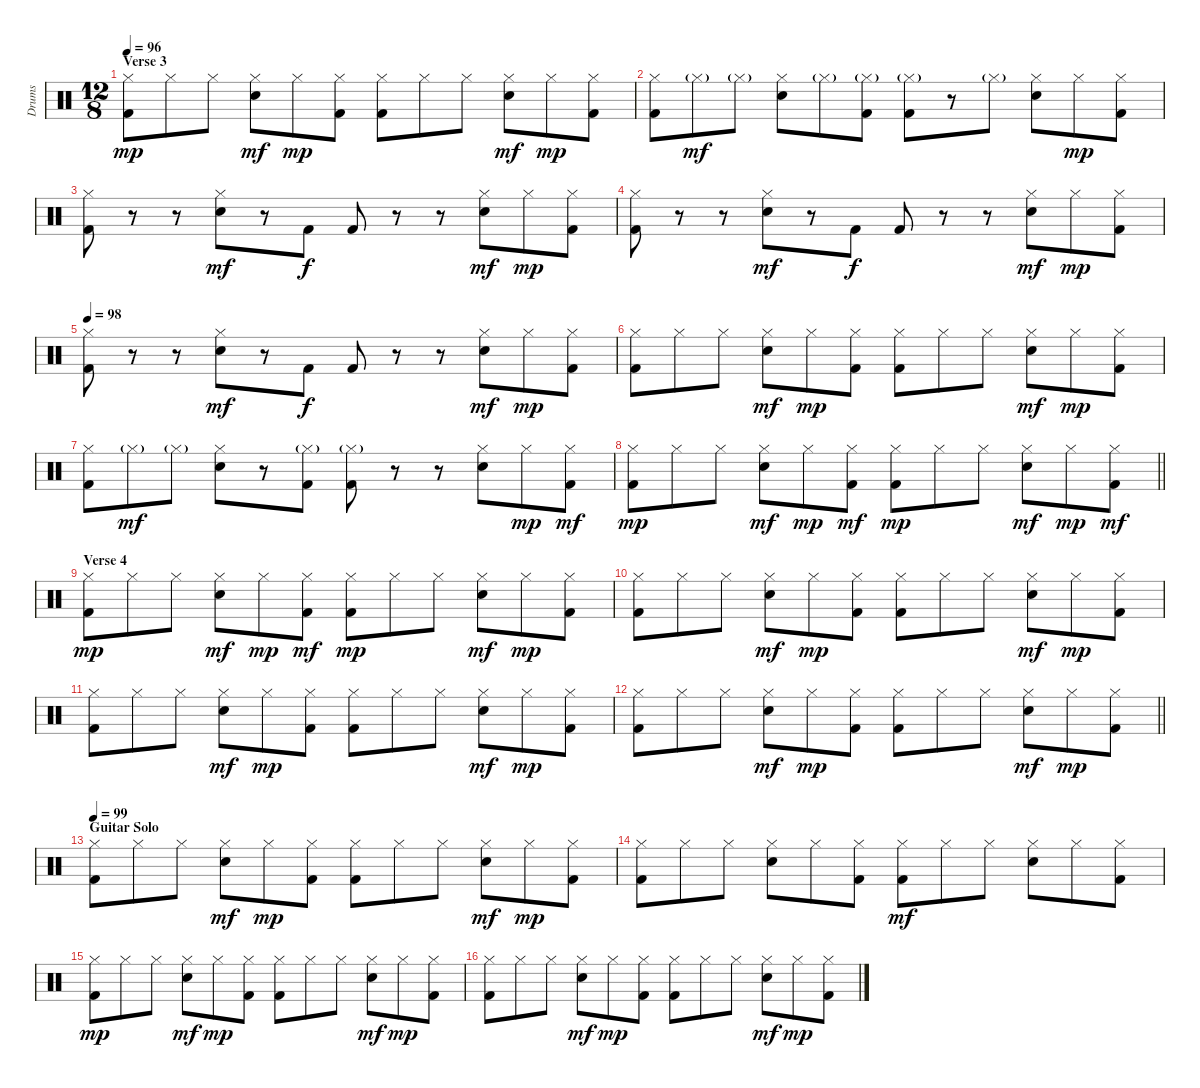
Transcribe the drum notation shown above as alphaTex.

\track ("Drums" "Drums") {instrument percussion}
\staff {score}
\articulation defaults
\ts (12 8)
\section ("" "Verse 3")
\tempo 96
\clef neutral
\ks c
("Hi-Hat (closed)" "Kick (hit) 2").8{dy mp} "Hi-Hat (closed)".8 "Hi-Hat (closed)".8 ("Hi-Hat (closed)" "Snare (hit) 2").8{dy mf} "Hi-Hat (closed)".8{dy mp} ("Hi-Hat (closed)" "Kick (hit) 2").8 ("Hi-Hat (closed)" "Kick (hit) 2").8 "Hi-Hat (closed)".8 "Hi-Hat (closed)".8 ("Hi-Hat (closed)" "Snare (hit) 2").8{dy mf} "Hi-Hat (closed)".8{dy mp} ("Hi-Hat (closed)" "Kick (hit) 2").8 |
("Hi-Hat (closed)" "Kick (hit) 2").8 "Hi-Hat (closed)"{g}.8{dy mf} "Hi-Hat (closed)"{g}.8 ("Hi-Hat (closed)" "Snare (hit) 2").8 "Hi-Hat (closed)"{g}.8 ("Hi-Hat (closed)"{g} "Kick (hit) 2").8 ("Hi-Hat (closed)"{g} "Kick (hit) 2").8 r.8 "Hi-Hat (closed)"{g}.8 ("Hi-Hat (closed)" "Snare (hit) 2").8 "Hi-Hat (closed)".8{dy mp} ("Hi-Hat (closed)" "Kick (hit) 2").8 |
("Hi-Hat (closed)" "Kick (hit) 2").8 r.8 r.8 ("Hi-Hat (closed)" "Snare (hit) 2").8{dy mf} r.8 "Kick (hit) 2".8{dy f} "Kick (hit) 2".8 r.8 r.8 ("Hi-Hat (closed)" "Snare (hit) 2").8{dy mf} "Hi-Hat (closed)".8{dy mp} ("Hi-Hat (closed)" "Kick (hit) 2").8 |
("Hi-Hat (closed)" "Kick (hit) 2").8 r.8 r.8 ("Hi-Hat (closed)" "Snare (hit) 2").8{dy mf} r.8 "Kick (hit) 2".8{dy f} "Kick (hit) 2".8 r.8 r.8 ("Hi-Hat (closed)" "Snare (hit) 2").8{dy mf} "Hi-Hat (closed)".8{dy mp} ("Hi-Hat (closed)" "Kick (hit) 2").8 |
\tempo 98
("Hi-Hat (closed)" "Kick (hit) 2").8 r.8 r.8 ("Hi-Hat (closed)" "Snare (hit) 2").8{dy mf} r.8 "Kick (hit) 2".8{dy f} "Kick (hit) 2".8 r.8 r.8 ("Hi-Hat (closed)" "Snare (hit) 2").8{dy mf} "Hi-Hat (closed)".8{dy mp} ("Hi-Hat (closed)" "Kick (hit) 2").8 |
("Hi-Hat (closed)" "Kick (hit) 2").8 "Hi-Hat (closed)".8 "Hi-Hat (closed)".8 ("Hi-Hat (closed)" "Snare (hit) 2").8{dy mf} "Hi-Hat (closed)".8{dy mp} ("Hi-Hat (closed)" "Kick (hit) 2").8 ("Hi-Hat (closed)" "Kick (hit) 2").8 "Hi-Hat (closed)".8 "Hi-Hat (closed)".8 ("Hi-Hat (closed)" "Snare (hit) 2").8{dy mf} "Hi-Hat (closed)".8{dy mp} ("Hi-Hat (closed)" "Kick (hit) 2").8 |
("Hi-Hat (closed)" "Kick (hit) 2").8 "Hi-Hat (closed)"{g}.8{dy mf} "Hi-Hat (closed)"{g}.8 ("Hi-Hat (closed)" "Snare (hit) 2").8 r.8 ("Hi-Hat (closed)"{g} "Kick (hit) 2").8 ("Hi-Hat (closed)"{g} "Kick (hit) 2").8 r.8 r.8 ("Hi-Hat (closed)" "Snare (hit) 2").8 "Hi-Hat (closed)".8{dy mp} ("Hi-Hat (closed)" "Kick (hit) 2").8{dy mf} |
\barLineRight lightlight
("Hi-Hat (closed)" "Kick (hit) 2").8{dy mp} "Hi-Hat (closed)".8 "Hi-Hat (closed)".8 ("Hi-Hat (closed)" "Snare (hit) 2").8{dy mf} "Hi-Hat (closed)".8{dy mp} ("Hi-Hat (closed)" "Kick (hit) 2").8{dy mf} ("Hi-Hat (closed)" "Kick (hit) 2").8{dy mp} "Hi-Hat (closed)".8 "Hi-Hat (closed)".8 ("Hi-Hat (closed)" "Snare (hit) 2").8{dy mf} "Hi-Hat (closed)".8{dy mp} ("Hi-Hat (closed)" "Kick (hit) 2").8{dy mf} |
\section ("" "Verse 4")
("Hi-Hat (closed)" "Kick (hit) 2").8{dy mp} "Hi-Hat (closed)".8 "Hi-Hat (closed)".8 ("Hi-Hat (closed)" "Snare (hit) 2").8{dy mf} "Hi-Hat (closed)".8{dy mp} ("Hi-Hat (closed)" "Kick (hit) 2").8{dy mf} ("Hi-Hat (closed)" "Kick (hit) 2").8{dy mp} "Hi-Hat (closed)".8 "Hi-Hat (closed)".8 ("Hi-Hat (closed)" "Snare (hit) 2").8{dy mf} "Hi-Hat (closed)".8{dy mp} ("Hi-Hat (closed)" "Kick (hit) 2").8 |
("Hi-Hat (closed)" "Kick (hit) 2").8 "Hi-Hat (closed)".8 "Hi-Hat (closed)".8 ("Hi-Hat (closed)" "Snare (hit) 2").8{dy mf} "Hi-Hat (closed)".8{dy mp} ("Hi-Hat (closed)" "Kick (hit) 2").8 ("Hi-Hat (closed)" "Kick (hit) 2").8 "Hi-Hat (closed)".8 "Hi-Hat (closed)".8 ("Hi-Hat (closed)" "Snare (hit) 2").8{dy mf} "Hi-Hat (closed)".8{dy mp} ("Hi-Hat (closed)" "Kick (hit) 2").8 |
("Hi-Hat (closed)" "Kick (hit) 2").8 "Hi-Hat (closed)".8 "Hi-Hat (closed)".8 ("Hi-Hat (closed)" "Snare (hit) 2").8{dy mf} "Hi-Hat (closed)".8{dy mp} ("Hi-Hat (closed)" "Kick (hit) 2").8 ("Hi-Hat (closed)" "Kick (hit) 2").8 "Hi-Hat (closed)".8 "Hi-Hat (closed)".8 ("Hi-Hat (closed)" "Snare (hit) 2").8{dy mf} "Hi-Hat (closed)".8{dy mp} ("Hi-Hat (closed)" "Kick (hit) 2").8 |
\barLineRight lightlight
("Hi-Hat (closed)" "Kick (hit) 2").8 "Hi-Hat (closed)".8 "Hi-Hat (closed)".8 ("Hi-Hat (closed)" "Snare (hit) 2").8{dy mf} "Hi-Hat (closed)".8{dy mp} ("Hi-Hat (closed)" "Kick (hit) 2").8 ("Hi-Hat (closed)" "Kick (hit) 2").8 "Hi-Hat (closed)".8 "Hi-Hat (closed)".8 ("Hi-Hat (closed)" "Snare (hit) 2").8{dy mf} "Hi-Hat (closed)".8{dy mp} ("Hi-Hat (closed)" "Kick (hit) 2").8 |
\section ("" "Guitar Solo")
\tempo 99
("Hi-Hat (closed)" "Kick (hit) 2").8 "Hi-Hat (closed)".8 "Hi-Hat (closed)".8 ("Hi-Hat (closed)" "Snare (hit) 2").8{dy mf} "Hi-Hat (closed)".8{dy mp} ("Hi-Hat (closed)" "Kick (hit) 2").8 ("Hi-Hat (closed)" "Kick (hit) 2").8 "Hi-Hat (closed)".8 "Hi-Hat (closed)".8 ("Hi-Hat (closed)" "Snare (hit) 2").8{dy mf} "Hi-Hat (closed)".8{dy mp} ("Hi-Hat (closed)" "Kick (hit) 2").8 |
("Hi-Hat (closed)" "Kick (hit) 2").8 "Hi-Hat (closed)".8 "Hi-Hat (closed)".8 ("Hi-Hat (closed)" "Snare (hit) 2").8 "Hi-Hat (closed)".8 ("Hi-Hat (closed)" "Kick (hit) 2").8 ("Hi-Hat (closed)" "Kick (hit) 2").8{dy mf} "Hi-Hat (closed)".8 "Hi-Hat (closed)".8 ("Hi-Hat (closed)" "Snare (hit) 2").8 "Hi-Hat (closed)".8 ("Hi-Hat (closed)" "Kick (hit) 2").8 |
("Hi-Hat (closed)" "Kick (hit) 2").8{dy mp} "Hi-Hat (closed)".8 "Hi-Hat (closed)".8 ("Hi-Hat (closed)" "Snare (hit) 2").8{dy mf} "Hi-Hat (closed)".8{dy mp} ("Hi-Hat (closed)" "Kick (hit) 2").8 ("Hi-Hat (closed)" "Kick (hit) 2").8 "Hi-Hat (closed)".8 "Hi-Hat (closed)".8 ("Hi-Hat (closed)" "Snare (hit) 2").8{dy mf} "Hi-Hat (closed)".8{dy mp} ("Hi-Hat (closed)" "Kick (hit) 2").8 |
("Hi-Hat (closed)" "Kick (hit) 2").8 "Hi-Hat (closed)".8 "Hi-Hat (closed)".8 ("Hi-Hat (closed)" "Snare (hit) 2").8{dy mf} "Hi-Hat (closed)".8{dy mp} ("Hi-Hat (closed)" "Kick (hit) 2").8 ("Hi-Hat (closed)" "Kick (hit) 2").8 "Hi-Hat (closed)".8 "Hi-Hat (closed)".8 ("Hi-Hat (closed)" "Snare (hit) 2").8{dy mf} "Hi-Hat (closed)".8{dy mp} ("Hi-Hat (closed)" "Kick (hit) 2").8
